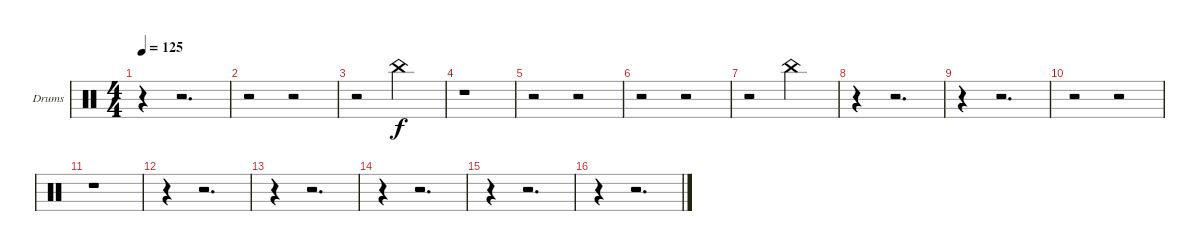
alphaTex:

\bracketExtendMode groupsimilarinstruments
\firstSystemTrackNameOrientation horizontal
\otherSystemsTrackNameOrientation horizontal
\track ("Drumkit" "Drums") {instrument percussion}
\staff {score}
\articulation defaults
\ts (4 4)
\tempo 125
\clef neutral
\ks c
r.4{dy f} r.2{d} |
r.2 r.2 |
r.2 "China (hit)".2 |
r.1 |
r.2 r.2 |
r.2 r.2 |
r.2 "China (hit)".2 |
r.4 r.2{d} |
r.4 r.2{d} |
r.2 r.2 |
r.1 |
r.4 r.2{d} |
r.4 r.2{d} |
r.4 r.2{d} |
r.4 r.2{d} |
r.4 r.2{d}
